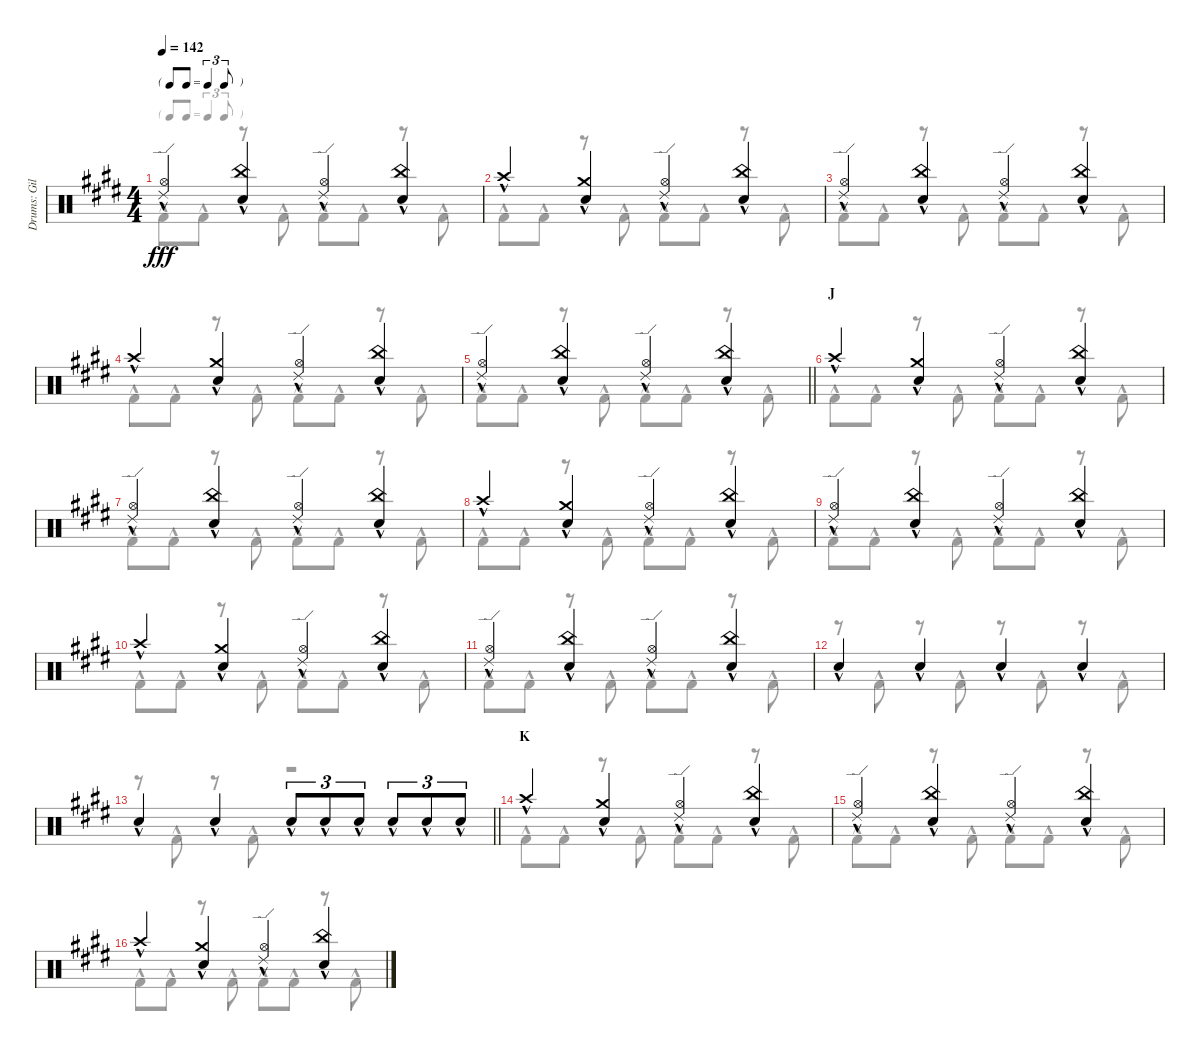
\track ("Drums: Gil" "Drums: Gil") {instrument percussion}
\staff {score}
\articulation defaults
\voice
\ts (4 4)
\tf triplet8th
\tempo 142
\clef neutral
\ks e
("Ride (edge) 2"{hac} "Hi-Hat (open)"{hac}).4{dy fff} ("China (hit)"{hac} "Snare (hit) 2"{hac}).4 ("Ride (edge) 2"{hac} "Hi-Hat (open)"{hac}).4 ("China (hit)"{hac} "Snare (hit) 2"{hac}).4 |
"Crash high (hit)"{hac}.4 ("Crash medium (hit)"{hac} "Snare (hit) 2"{hac}).4 ("Ride (edge) 2"{hac} "Hi-Hat (open)"{hac}).4 ("China (hit)"{hac} "Snare (hit) 2"{hac}).4 |
("Ride (edge) 2"{hac} "Hi-Hat (open)"{hac}).4 ("China (hit)"{hac} "Snare (hit) 2"{hac}).4 ("Ride (edge) 2"{hac} "Hi-Hat (open)"{hac}).4 ("China (hit)"{hac} "Snare (hit) 2"{hac}).4 |
"Crash high (hit)"{hac}.4 ("Crash medium (hit)"{hac} "Snare (hit) 2"{hac}).4 ("Ride (edge) 2"{hac} "Hi-Hat (open)"{hac}).4 ("China (hit)"{hac} "Snare (hit) 2"{hac}).4 |
\barLineRight lightlight
("Ride (edge) 2"{hac} "Hi-Hat (open)"{hac}).4 ("China (hit)"{hac} "Snare (hit) 2"{hac}).4 ("Ride (edge) 2"{hac} "Hi-Hat (open)"{hac}).4 ("China (hit)"{hac} "Snare (hit) 2"{hac}).4 |
\section ("" "J")
"Crash high (hit)"{hac}.4 ("Crash medium (hit)"{hac} "Snare (hit) 2"{hac}).4 ("Ride (edge) 2"{hac} "Hi-Hat (open)"{hac}).4 ("China (hit)"{hac} "Snare (hit) 2"{hac}).4 |
("Ride (edge) 2"{hac} "Hi-Hat (open)"{hac}).4 ("China (hit)"{hac} "Snare (hit) 2"{hac}).4 ("Ride (edge) 2"{hac} "Hi-Hat (open)"{hac}).4 ("China (hit)"{hac} "Snare (hit) 2"{hac}).4 |
"Crash high (hit)"{hac}.4 ("Crash medium (hit)"{hac} "Snare (hit) 2"{hac}).4 ("Ride (edge) 2"{hac} "Hi-Hat (open)"{hac}).4 ("China (hit)"{hac} "Snare (hit) 2"{hac}).4 |
("Ride (edge) 2"{hac} "Hi-Hat (open)"{hac}).4 ("China (hit)"{hac} "Snare (hit) 2"{hac}).4 ("Ride (edge) 2"{hac} "Hi-Hat (open)"{hac}).4 ("China (hit)"{hac} "Snare (hit) 2"{hac}).4 |
"Crash high (hit)"{hac}.4 ("Crash medium (hit)"{hac} "Snare (hit) 2"{hac}).4 ("Ride (edge) 2"{hac} "Hi-Hat (open)"{hac}).4 ("China (hit)"{hac} "Snare (hit) 2"{hac}).4 |
("Ride (edge) 2"{hac} "Hi-Hat (open)"{hac}).4 ("China (hit)"{hac} "Snare (hit) 2"{hac}).4 ("Ride (edge) 2"{hac} "Hi-Hat (open)"{hac}).4 ("China (hit)"{hac} "Snare (hit) 2"{hac}).4 |
"Snare (hit) 2"{hac}.4 "Snare (hit) 2"{hac}.4 "Snare (hit) 2"{hac}.4 "Snare (hit) 2"{hac}.4 |
\barLineRight lightlight "Snare (hit) 2"{hac}.4 "Snare (hit) 2"{hac}.4 "Snare (hit) 2"{hac}.8{tu (3 2)} "Snare (hit) 2"{hac}.8{tu (3 2)} "Snare (hit) 2"{hac}.8{tu (3 2)} "Snare (hit) 2"{hac}.8{tu (3 2)} "Snare (hit) 2"{hac}.8{tu (3 2)} "Snare (hit) 2"{hac}.8{tu (3 2)}
|
\section ("" "K")
"Crash high (hit)"{hac}.4 ("Crash medium (hit)"{hac} "Snare (hit) 2"{hac}).4 ("Ride (edge) 2"{hac} "Hi-Hat (open)"{hac}).4 ("China (hit)"{hac} "Snare (hit) 2"{hac}).4 |
("Ride (edge) 2"{hac} "Hi-Hat (open)"{hac}).4 ("China (hit)"{hac} "Snare (hit) 2"{hac}).4 ("Ride (edge) 2"{hac} "Hi-Hat (open)"{hac}).4 ("China (hit)"{hac} "Snare (hit) 2"{hac}).4 |
"Crash high (hit)"{hac}.4 ("Crash medium (hit)"{hac} "Snare (hit) 2"{hac}).4 ("Ride (edge) 2"{hac} "Hi-Hat (open)"{hac}).4 ("China (hit)"{hac} "Snare (hit) 2"{hac}).4
\voice
\clef neutral
\ottava regular
\simile none
\ks e "Kick (hit) 2"{hac}.8{dy fff} "Kick (hit) 2"{hac}.8
r.8 "Kick (hit) 2"{hac}.8 "Kick (hit) 2"{hac}.8 "Kick (hit) 2"{hac}.8 r.8 "Kick (hit) 2"{hac}.8 |
"Kick (hit) 2"{hac}.8 "Kick (hit) 2"{hac}.8 r.8 "Kick (hit) 2"{hac}.8 "Kick (hit) 2"{hac}.8 "Kick (hit) 2"{hac}.8 r.8 "Kick (hit) 2"{hac}.8 |
"Kick (hit) 2"{hac}.8 "Kick (hit) 2"{hac}.8 r.8 "Kick (hit) 2"{hac}.8 "Kick (hit) 2"{hac}.8 "Kick (hit) 2"{hac}.8 r.8 "Kick (hit) 2"{hac}.8 |
"Kick (hit) 2"{hac}.8 "Kick (hit) 2"{hac}.8 r.8 "Kick (hit) 2"{hac}.8 "Kick (hit) 2"{hac}.8 "Kick (hit) 2"{hac}.8 r.8 "Kick (hit) 2"{hac}.8 |
\barLineRight lightlight "Kick (hit) 2"{hac}.8 "Kick (hit) 2"{hac}.8
r.8 "Kick (hit) 2"{hac}.8 "Kick (hit) 2"{hac}.8 "Kick (hit) 2"{hac}.8 r.8 "Kick (hit) 2"{hac}.8 |
"Kick (hit) 2"{hac}.8 "Kick (hit) 2"{hac}.8 r.8 "Kick (hit) 2"{hac}.8 "Kick (hit) 2"{hac}.8 "Kick (hit) 2"{hac}.8 r.8 "Kick (hit) 2"{hac}.8 |
"Kick (hit) 2"{hac}.8 "Kick (hit) 2"{hac}.8 r.8 "Kick (hit) 2"{hac}.8 "Kick (hit) 2"{hac}.8 "Kick (hit) 2"{hac}.8 r.8 "Kick (hit) 2"{hac}.8 |
"Kick (hit) 2"{hac}.8 "Kick (hit) 2"{hac}.8 r.8 "Kick (hit) 2"{hac}.8 "Kick (hit) 2"{hac}.8 "Kick (hit) 2"{hac}.8 r.8 "Kick (hit) 2"{hac}.8 |
"Kick (hit) 2"{hac}.8 "Kick (hit) 2"{hac}.8 r.8 "Kick (hit) 2"{hac}.8 "Kick (hit) 2"{hac}.8 "Kick (hit) 2"{hac}.8 r.8 "Kick (hit) 2"{hac}.8 |
"Kick (hit) 2"{hac}.8 "Kick (hit) 2"{hac}.8 r.8 "Kick (hit) 2"{hac}.8 "Kick (hit) 2"{hac}.8 "Kick (hit) 2"{hac}.8 r.8 "Kick (hit) 2"{hac}.8 |
"Kick (hit) 2"{hac}.8 "Kick (hit) 2"{hac}.8 r.8 "Kick (hit) 2"{hac}.8 "Kick (hit) 2"{hac}.8 "Kick (hit) 2"{hac}.8 r.8 "Kick (hit) 2"{hac}.8 |
r.8 "Kick (hit) 2"{hac}.8 r.8 "Kick (hit) 2"{hac}.8 r.8 "Kick (hit) 2"{hac}.8 r.8 "Kick (hit) 2"{hac}.8 |
\barLineRight lightlight
r.8 "Kick (hit) 2"{hac}.8 r.8 "Kick (hit) 2"{hac}.8 r.2 |
"Kick (hit) 2"{hac}.8 "Kick (hit) 2"{hac}.8 r.8 "Kick (hit) 2"{hac}.8 "Kick (hit) 2"{hac}.8 "Kick (hit) 2"{hac}.8 r.8 "Kick (hit) 2"{hac}.8 |
"Kick (hit) 2"{hac}.8 "Kick (hit) 2"{hac}.8 r.8 "Kick (hit) 2"{hac}.8 "Kick (hit) 2"{hac}.8 "Kick (hit) 2"{hac}.8 r.8 "Kick (hit) 2"{hac}.8 |
"Kick (hit) 2"{hac}.8 "Kick (hit) 2"{hac}.8 r.8 "Kick (hit) 2"{hac}.8 "Kick (hit) 2"{hac}.8 "Kick (hit) 2"{hac}.8 r.8 "Kick (hit) 2"{hac}.8
